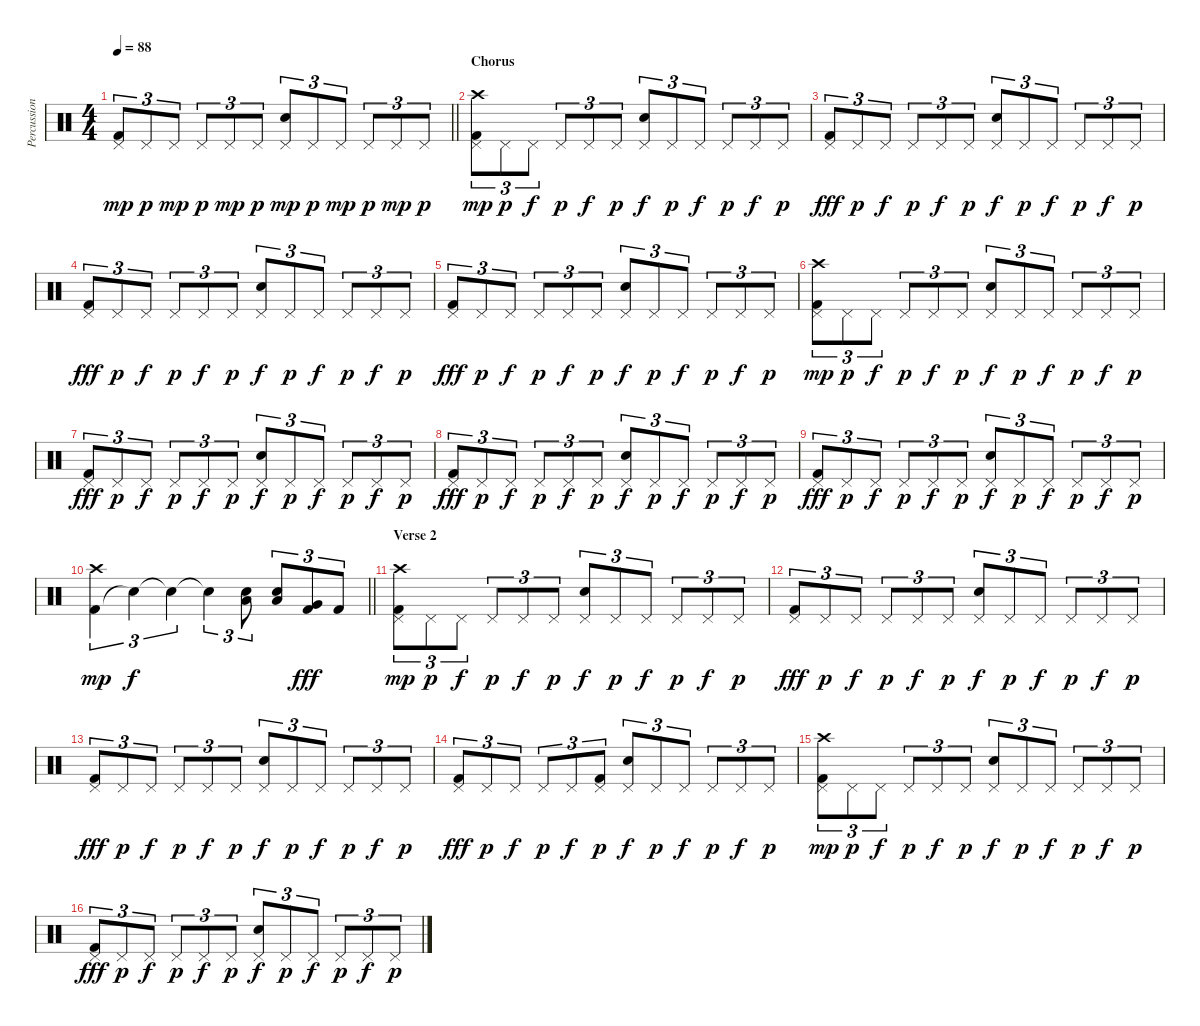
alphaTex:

\track ("Percussion" "Percussion") {instrument percussion}
\staff {score}
\articulation defaults
\ts (4 4)
\tempo 88
\clef neutral
\barLineRight lightlight
\ks c
("Kick (hit) 2" "Pedal Hi-Hat (hit)").8{tu (3 2) dy mp} "Pedal Hi-Hat (hit)".8{tu (3 2) dy p} "Pedal Hi-Hat (hit)".8{tu (3 2) dy mp} "Pedal Hi-Hat (hit)".8{tu (3 2) dy p} "Pedal Hi-Hat (hit)".8{tu (3 2) dy mp} "Pedal Hi-Hat (hit)".8{tu (3 2) dy p} ("Electric Snare (hit)" "Pedal Hi-Hat (hit)").8{tu (3 2) dy mp} "Pedal Hi-Hat (hit)".8{tu (3 2) dy p} "Pedal Hi-Hat (hit)".8{tu (3 2) dy mp} "Pedal Hi-Hat (hit)".8{tu (3 2) dy p} "Pedal Hi-Hat (hit)".8{tu (3 2) dy mp} "Pedal Hi-Hat (hit)".8{tu (3 2) dy p} |
\section ("" "Chorus")
("Kick (hit) 2" "Pedal Hi-Hat (hit)" "Crash high (hit)").8{tu (3 2) dy mp} "Pedal Hi-Hat (hit)".8{tu (3 2) dy p} "Pedal Hi-Hat (hit)".8{tu (3 2) dy f} "Pedal Hi-Hat (hit)".8{tu (3 2) dy p} "Pedal Hi-Hat (hit)".8{tu (3 2) dy f} "Pedal Hi-Hat (hit)".8{tu (3 2) dy p} ("Electric Snare (hit)" "Pedal Hi-Hat (hit)").8{tu (3 2) dy f} "Pedal Hi-Hat (hit)".8{tu (3 2) dy p} "Pedal Hi-Hat (hit)".8{tu (3 2) dy f} "Pedal Hi-Hat (hit)".8{tu (3 2) dy p} "Pedal Hi-Hat (hit)".8{tu (3 2) dy f} "Pedal Hi-Hat (hit)".8{tu (3 2) dy p} |
("Kick (hit) 2" "Pedal Hi-Hat (hit)").8{tu (3 2) dy fff} "Pedal Hi-Hat (hit)".8{tu (3 2) dy p} "Pedal Hi-Hat (hit)".8{tu (3 2) dy f} "Pedal Hi-Hat (hit)".8{tu (3 2) dy p} "Pedal Hi-Hat (hit)".8{tu (3 2) dy f} "Pedal Hi-Hat (hit)".8{tu (3 2) dy p} ("Electric Snare (hit)" "Pedal Hi-Hat (hit)").8{tu (3 2) dy f} "Pedal Hi-Hat (hit)".8{tu (3 2) dy p} "Pedal Hi-Hat (hit)".8{tu (3 2) dy f} "Pedal Hi-Hat (hit)".8{tu (3 2) dy p} "Pedal Hi-Hat (hit)".8{tu (3 2) dy f} "Pedal Hi-Hat (hit)".8{tu (3 2) dy p} |
("Kick (hit) 2" "Pedal Hi-Hat (hit)").8{tu (3 2) dy fff} "Pedal Hi-Hat (hit)".8{tu (3 2) dy p} "Pedal Hi-Hat (hit)".8{tu (3 2) dy f} "Pedal Hi-Hat (hit)".8{tu (3 2) dy p} "Pedal Hi-Hat (hit)".8{tu (3 2) dy f} "Pedal Hi-Hat (hit)".8{tu (3 2) dy p} ("Electric Snare (hit)" "Pedal Hi-Hat (hit)").8{tu (3 2) dy f} "Pedal Hi-Hat (hit)".8{tu (3 2) dy p} "Pedal Hi-Hat (hit)".8{tu (3 2) dy f} "Pedal Hi-Hat (hit)".8{tu (3 2) dy p} "Pedal Hi-Hat (hit)".8{tu (3 2) dy f} "Pedal Hi-Hat (hit)".8{tu (3 2) dy p} |
("Kick (hit) 2" "Pedal Hi-Hat (hit)").8{tu (3 2) dy fff} "Pedal Hi-Hat (hit)".8{tu (3 2) dy p} "Pedal Hi-Hat (hit)".8{tu (3 2) dy f} "Pedal Hi-Hat (hit)".8{tu (3 2) dy p} "Pedal Hi-Hat (hit)".8{tu (3 2) dy f} "Pedal Hi-Hat (hit)".8{tu (3 2) dy p} ("Electric Snare (hit)" "Pedal Hi-Hat (hit)").8{tu (3 2) dy f} "Pedal Hi-Hat (hit)".8{tu (3 2) dy p} "Pedal Hi-Hat (hit)".8{tu (3 2) dy f} "Pedal Hi-Hat (hit)".8{tu (3 2) dy p} "Pedal Hi-Hat (hit)".8{tu (3 2) dy f} "Pedal Hi-Hat (hit)".8{tu (3 2) dy p} |
("Kick (hit) 2" "Pedal Hi-Hat (hit)" "Crash high (hit)").8{tu (3 2) dy mp} "Pedal Hi-Hat (hit)".8{tu (3 2) dy p} "Pedal Hi-Hat (hit)".8{tu (3 2) dy f} "Pedal Hi-Hat (hit)".8{tu (3 2) dy p} "Pedal Hi-Hat (hit)".8{tu (3 2) dy f} "Pedal Hi-Hat (hit)".8{tu (3 2) dy p} ("Electric Snare (hit)" "Pedal Hi-Hat (hit)").8{tu (3 2) dy f} "Pedal Hi-Hat (hit)".8{tu (3 2) dy p} "Pedal Hi-Hat (hit)".8{tu (3 2) dy f} "Pedal Hi-Hat (hit)".8{tu (3 2) dy p} "Pedal Hi-Hat (hit)".8{tu (3 2) dy f} "Pedal Hi-Hat (hit)".8{tu (3 2) dy p} |
("Kick (hit) 2" "Pedal Hi-Hat (hit)").8{tu (3 2) dy fff} "Pedal Hi-Hat (hit)".8{tu (3 2) dy p} "Pedal Hi-Hat (hit)".8{tu (3 2) dy f} "Pedal Hi-Hat (hit)".8{tu (3 2) dy p} "Pedal Hi-Hat (hit)".8{tu (3 2) dy f} "Pedal Hi-Hat (hit)".8{tu (3 2) dy p} ("Electric Snare (hit)" "Pedal Hi-Hat (hit)").8{tu (3 2) dy f} "Pedal Hi-Hat (hit)".8{tu (3 2) dy p} "Pedal Hi-Hat (hit)".8{tu (3 2) dy f} "Pedal Hi-Hat (hit)".8{tu (3 2) dy p} "Pedal Hi-Hat (hit)".8{tu (3 2) dy f} "Pedal Hi-Hat (hit)".8{tu (3 2) dy p} |
("Kick (hit) 2" "Pedal Hi-Hat (hit)").8{tu (3 2) dy fff} "Pedal Hi-Hat (hit)".8{tu (3 2) dy p} "Pedal Hi-Hat (hit)".8{tu (3 2) dy f} "Pedal Hi-Hat (hit)".8{tu (3 2) dy p} "Pedal Hi-Hat (hit)".8{tu (3 2) dy f} "Pedal Hi-Hat (hit)".8{tu (3 2) dy p} ("Electric Snare (hit)" "Pedal Hi-Hat (hit)").8{tu (3 2) dy f} "Pedal Hi-Hat (hit)".8{tu (3 2) dy p} "Pedal Hi-Hat (hit)".8{tu (3 2) dy f} "Pedal Hi-Hat (hit)".8{tu (3 2) dy p} "Pedal Hi-Hat (hit)".8{tu (3 2) dy f} "Pedal Hi-Hat (hit)".8{tu (3 2) dy p} |
("Kick (hit) 2" "Pedal Hi-Hat (hit)").8{tu (3 2) dy fff} "Pedal Hi-Hat (hit)".8{tu (3 2) dy p} "Pedal Hi-Hat (hit)".8{tu (3 2) dy f} "Pedal Hi-Hat (hit)".8{tu (3 2) dy p} "Pedal Hi-Hat (hit)".8{tu (3 2) dy f} "Pedal Hi-Hat (hit)".8{tu (3 2) dy p} ("Electric Snare (hit)" "Pedal Hi-Hat (hit)").8{tu (3 2) dy f} "Pedal Hi-Hat (hit)".8{tu (3 2) dy p} "Pedal Hi-Hat (hit)".8{tu (3 2) dy f} "Pedal Hi-Hat (hit)".8{tu (3 2) dy p} "Pedal Hi-Hat (hit)".8{tu (3 2) dy f} "Pedal Hi-Hat (hit)".8{tu (3 2) dy p} |
\barLineRight lightlight
("Kick (hit) 2" "Crash high (hit)").4{tu (3 2) dy mp} "Snare (hit)"{t}.4{tu (3 2) dy f} "Snare (hit)"{t}.4{tu (3 2)} "Snare (hit)"{t}.4{tu (3 2)} ("Electric Snare (hit)" "Low Tom (hit)").8{tu (3 2)} ("Electric Snare (hit)" "Low Tom (hit)").8{tu (3 2)} ("Kick (hit) 2" "Very Low Tom (hit)").8{tu (3 2) dy fff} "Kick (hit) 2".8{tu (3 2)} |
\section ("" "Verse 2")
("Kick (hit) 2" "Pedal Hi-Hat (hit)" "Crash high (hit)").8{tu (3 2) dy mp} "Pedal Hi-Hat (hit)".8{tu (3 2) dy p} "Pedal Hi-Hat (hit)".8{tu (3 2) dy f} "Pedal Hi-Hat (hit)".8{tu (3 2) dy p} "Pedal Hi-Hat (hit)".8{tu (3 2) dy f} "Pedal Hi-Hat (hit)".8{tu (3 2) dy p} ("Electric Snare (hit)" "Pedal Hi-Hat (hit)").8{tu (3 2) dy f} "Pedal Hi-Hat (hit)".8{tu (3 2) dy p} "Pedal Hi-Hat (hit)".8{tu (3 2) dy f} "Pedal Hi-Hat (hit)".8{tu (3 2) dy p} "Pedal Hi-Hat (hit)".8{tu (3 2) dy f} "Pedal Hi-Hat (hit)".8{tu (3 2) dy p} |
("Kick (hit) 2" "Pedal Hi-Hat (hit)").8{tu (3 2) dy fff} "Pedal Hi-Hat (hit)".8{tu (3 2) dy p} "Pedal Hi-Hat (hit)".8{tu (3 2) dy f} "Pedal Hi-Hat (hit)".8{tu (3 2) dy p} "Pedal Hi-Hat (hit)".8{tu (3 2) dy f} "Pedal Hi-Hat (hit)".8{tu (3 2) dy p} ("Electric Snare (hit)" "Pedal Hi-Hat (hit)").8{tu (3 2) dy f} "Pedal Hi-Hat (hit)".8{tu (3 2) dy p} "Pedal Hi-Hat (hit)".8{tu (3 2) dy f} "Pedal Hi-Hat (hit)".8{tu (3 2) dy p} "Pedal Hi-Hat (hit)".8{tu (3 2) dy f} "Pedal Hi-Hat (hit)".8{tu (3 2) dy p} |
("Kick (hit) 2" "Pedal Hi-Hat (hit)").8{tu (3 2) dy fff} "Pedal Hi-Hat (hit)".8{tu (3 2) dy p} "Pedal Hi-Hat (hit)".8{tu (3 2) dy f} "Pedal Hi-Hat (hit)".8{tu (3 2) dy p} "Pedal Hi-Hat (hit)".8{tu (3 2) dy f} "Pedal Hi-Hat (hit)".8{tu (3 2) dy p} ("Electric Snare (hit)" "Pedal Hi-Hat (hit)").8{tu (3 2) dy f} "Pedal Hi-Hat (hit)".8{tu (3 2) dy p} "Pedal Hi-Hat (hit)".8{tu (3 2) dy f} "Pedal Hi-Hat (hit)".8{tu (3 2) dy p} "Pedal Hi-Hat (hit)".8{tu (3 2) dy f} "Pedal Hi-Hat (hit)".8{tu (3 2) dy p} |
("Kick (hit) 2" "Pedal Hi-Hat (hit)").8{tu (3 2) dy fff} "Pedal Hi-Hat (hit)".8{tu (3 2) dy p} "Pedal Hi-Hat (hit)".8{tu (3 2) dy f} "Pedal Hi-Hat (hit)".8{tu (3 2) dy p} "Pedal Hi-Hat (hit)".8{tu (3 2) dy f} ("Kick (hit) 2" "Pedal Hi-Hat (hit)").8{tu (3 2) dy p} ("Electric Snare (hit)" "Pedal Hi-Hat (hit)").8{tu (3 2) dy f} "Pedal Hi-Hat (hit)".8{tu (3 2) dy p} "Pedal Hi-Hat (hit)".8{tu (3 2) dy f} "Pedal Hi-Hat (hit)".8{tu (3 2) dy p} "Pedal Hi-Hat (hit)".8{tu (3 2) dy f} "Pedal Hi-Hat (hit)".8{tu (3 2) dy p} |
("Kick (hit) 2" "Pedal Hi-Hat (hit)" "Crash high (hit)").8{tu (3 2) dy mp} "Pedal Hi-Hat (hit)".8{tu (3 2) dy p} "Pedal Hi-Hat (hit)".8{tu (3 2) dy f} "Pedal Hi-Hat (hit)".8{tu (3 2) dy p} "Pedal Hi-Hat (hit)".8{tu (3 2) dy f} "Pedal Hi-Hat (hit)".8{tu (3 2) dy p} ("Electric Snare (hit)" "Pedal Hi-Hat (hit)").8{tu (3 2) dy f} "Pedal Hi-Hat (hit)".8{tu (3 2) dy p} "Pedal Hi-Hat (hit)".8{tu (3 2) dy f} "Pedal Hi-Hat (hit)".8{tu (3 2) dy p} "Pedal Hi-Hat (hit)".8{tu (3 2) dy f} "Pedal Hi-Hat (hit)".8{tu (3 2) dy p} |
("Kick (hit) 2" "Pedal Hi-Hat (hit)").8{tu (3 2) dy fff} "Pedal Hi-Hat (hit)".8{tu (3 2) dy p} "Pedal Hi-Hat (hit)".8{tu (3 2) dy f} "Pedal Hi-Hat (hit)".8{tu (3 2) dy p} "Pedal Hi-Hat (hit)".8{tu (3 2) dy f} "Pedal Hi-Hat (hit)".8{tu (3 2) dy p} ("Electric Snare (hit)" "Pedal Hi-Hat (hit)").8{tu (3 2) dy f} "Pedal Hi-Hat (hit)".8{tu (3 2) dy p} "Pedal Hi-Hat (hit)".8{tu (3 2) dy f} "Pedal Hi-Hat (hit)".8{tu (3 2) dy p} "Pedal Hi-Hat (hit)".8{tu (3 2) dy f} "Pedal Hi-Hat (hit)".8{tu (3 2) dy p}
